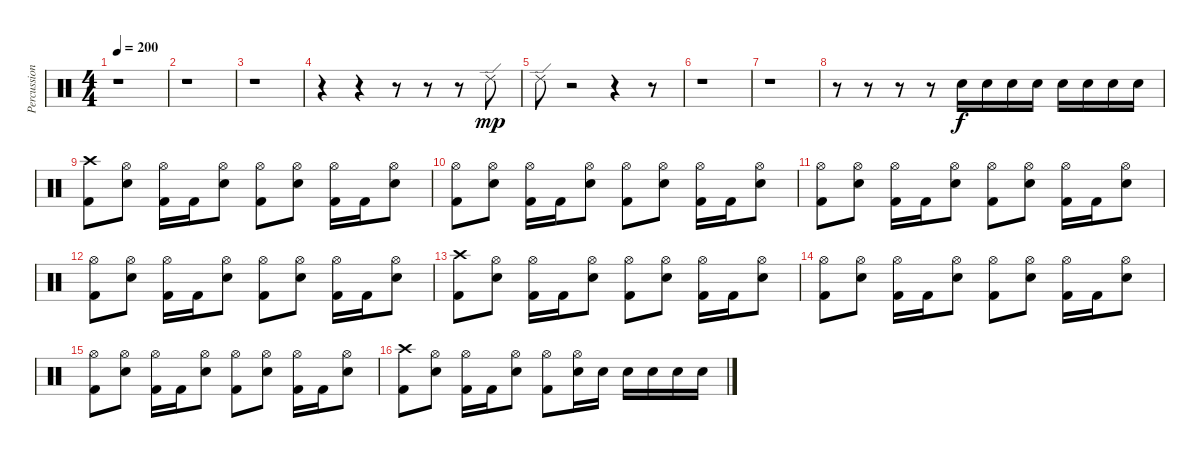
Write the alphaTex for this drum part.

\track ("Percussions" "Percussion") {instrument percussion}
\staff {score}
\articulation defaults
\ts (4 4)
\tempo 200
\clef neutral
\ks c
r.1{dy mp} |
r.1 |
r.1 |
r.4 r.4 r.8 r.8 r.8 "Ride (edge) 2".8 |
"Ride (edge) 2".8 r.2 r.4 r.8 |
r.1 |
r.1 |
r.8 r.8 r.8 r.8 "Electric Snare (hit)".16{dy f} "Electric Snare (hit)".16 "Electric Snare (hit)".16 "Electric Snare (hit)".16 "Electric Snare (hit)".16 "Electric Snare (hit)".16 "Electric Snare (hit)".16 "Electric Snare (hit)".16 |
("Crash high (hit)" "Kick (hit) 2").8 ("Hi-Hat (open)" "Electric Snare (hit)").8 ("Hi-Hat (open)" "Kick (hit) 2").16 "Kick (hit) 2".16 ("Hi-Hat (open)" "Electric Snare (hit)").8 ("Hi-Hat (open)" "Kick (hit) 2").8 ("Hi-Hat (open)" "Electric Snare (hit)").8 ("Hi-Hat (open)" "Kick (hit) 2").16 "Kick (hit) 2".16 ("Hi-Hat (open)" "Electric Snare (hit)").8 |
("Hi-Hat (open)" "Kick (hit) 2").8 ("Hi-Hat (open)" "Electric Snare (hit)").8 ("Hi-Hat (open)" "Kick (hit) 2").16 "Kick (hit) 2".16 ("Hi-Hat (open)" "Electric Snare (hit)").8 ("Hi-Hat (open)" "Kick (hit) 2").8 ("Hi-Hat (open)" "Electric Snare (hit)").8 ("Hi-Hat (open)" "Kick (hit) 2").16 "Kick (hit) 2".16 ("Hi-Hat (open)" "Electric Snare (hit)").8 |
("Hi-Hat (open)" "Kick (hit) 2").8 ("Hi-Hat (open)" "Electric Snare (hit)").8 ("Hi-Hat (open)" "Kick (hit) 2").16 "Kick (hit) 2".16 ("Hi-Hat (open)" "Electric Snare (hit)").8 ("Hi-Hat (open)" "Kick (hit) 2").8 ("Hi-Hat (open)" "Electric Snare (hit)").8 ("Hi-Hat (open)" "Kick (hit) 2").16 "Kick (hit) 2".16 ("Hi-Hat (open)" "Electric Snare (hit)").8 |
("Hi-Hat (open)" "Kick (hit) 2").8 ("Hi-Hat (open)" "Electric Snare (hit)").8 ("Hi-Hat (open)" "Kick (hit) 2").16 "Kick (hit) 2".16 ("Hi-Hat (open)" "Electric Snare (hit)").8 ("Hi-Hat (open)" "Kick (hit) 2").8 ("Hi-Hat (open)" "Electric Snare (hit)").8 ("Hi-Hat (open)" "Kick (hit) 2").16 "Kick (hit) 2".16 ("Hi-Hat (open)" "Electric Snare (hit)").8 |
("Crash high (hit)" "Kick (hit) 2").8 ("Hi-Hat (open)" "Electric Snare (hit)").8 ("Hi-Hat (open)" "Kick (hit) 2").16 "Kick (hit) 2".16 ("Hi-Hat (open)" "Electric Snare (hit)").8 ("Hi-Hat (open)" "Kick (hit) 2").8 ("Hi-Hat (open)" "Electric Snare (hit)").8 ("Hi-Hat (open)" "Kick (hit) 2").16 "Kick (hit) 2".16 ("Hi-Hat (open)" "Electric Snare (hit)").8 |
("Hi-Hat (open)" "Kick (hit) 2").8 ("Hi-Hat (open)" "Electric Snare (hit)").8 ("Hi-Hat (open)" "Kick (hit) 2").16 "Kick (hit) 2".16 ("Hi-Hat (open)" "Electric Snare (hit)").8 ("Hi-Hat (open)" "Kick (hit) 2").8 ("Hi-Hat (open)" "Electric Snare (hit)").8 ("Hi-Hat (open)" "Kick (hit) 2").16 "Kick (hit) 2".16 ("Hi-Hat (open)" "Electric Snare (hit)").8 |
("Hi-Hat (open)" "Kick (hit) 2").8 ("Hi-Hat (open)" "Electric Snare (hit)").8 ("Hi-Hat (open)" "Kick (hit) 2").16 "Kick (hit) 2".16 ("Hi-Hat (open)" "Electric Snare (hit)").8 ("Hi-Hat (open)" "Kick (hit) 2").8 ("Hi-Hat (open)" "Electric Snare (hit)").8 ("Hi-Hat (open)" "Kick (hit) 2").16 "Kick (hit) 2".16 ("Hi-Hat (open)" "Electric Snare (hit)").8 |
("Crash high (hit)" "Kick (hit) 2").8 ("Hi-Hat (open)" "Electric Snare (hit)").8 ("Hi-Hat (open)" "Kick (hit) 2").16 "Kick (hit) 2".16 ("Hi-Hat (open)" "Electric Snare (hit)").8 ("Hi-Hat (open)" "Kick (hit) 2").8 ("Hi-Hat (open)" "Electric Snare (hit)").16 "Electric Snare (hit)".16 "Electric Snare (hit)".16 "Electric Snare (hit)".16 "Electric Snare (hit)".16 "Electric Snare (hit)".16
